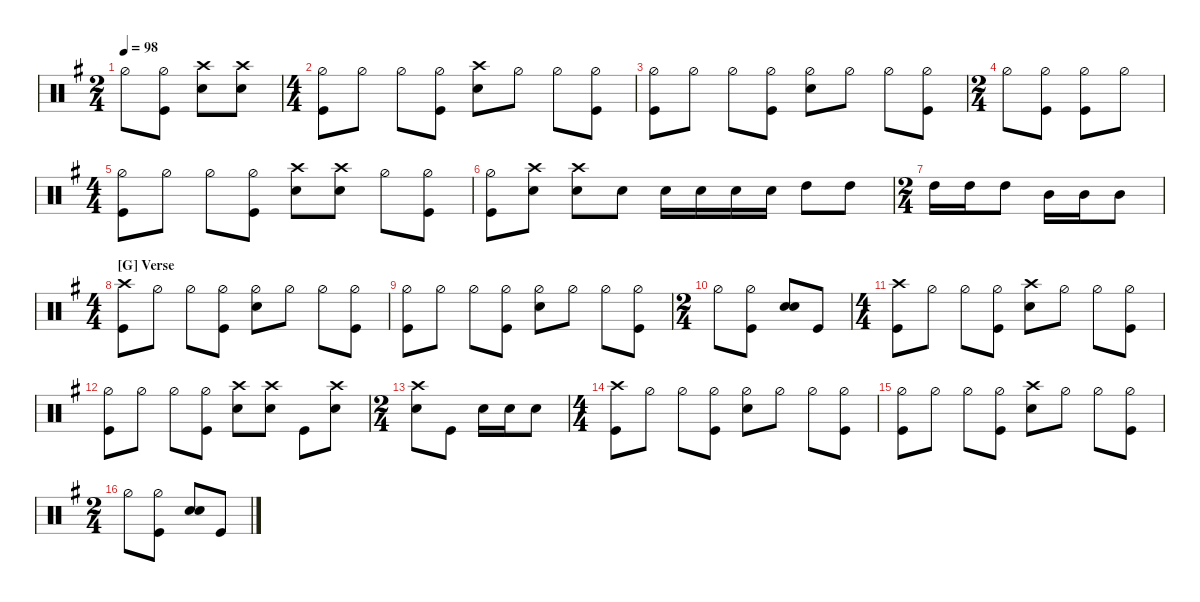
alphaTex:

\defaultSystemsLayout 4
\hideDynamics
\bracketExtendMode nobrackets
\track ("Drums" " ") {instrument percussion}
\staff
\articulation defaults
\ts (2 4)
\beaming (8 2 2)
\tempo 98
\clef neutral
\ks eminor "Hi-Hat (half)"{acc forcenatural}.8{dy f}
("Hi-Hat (half)"{acc forcenatural} "Kick (hit)"{acc forcenatural}).8 ("Snare (hit) 2"{acc forcenatural} "Crash high (hit)"{acc forcenatural}).8 ("Snare (hit) 2"{acc forcenatural} "Crash high (hit)"{acc forcenatural}).8 |
\ts (4 4)
\beaming (8 2 2 2 2)
("Kick (hit)"{acc forcenatural} "Hi-Hat (half)"{acc forcenatural}).8 "Hi-Hat (half)"{acc forcenatural}.8 "Hi-Hat (half)"{acc forcenatural}.8 ("Hi-Hat (half)"{acc forcenatural} "Kick (hit)"{acc forcenatural}).8 ("Snare (hit) 2"{acc forcenatural} "Crash high (hit)"{acc forcenatural}).8 "Hi-Hat (half)"{acc forcenatural}.8 "Hi-Hat (half)"{acc forcenatural}.8 ("Hi-Hat (half)"{acc forcenatural} "Kick (hit)"{acc forcenatural}).8 |
("Hi-Hat (half)"{acc forcenatural} "Kick (hit)"{acc forcenatural}).8 "Hi-Hat (half)"{acc forcenatural}.8 "Hi-Hat (half)"{acc forcenatural}.8 ("Hi-Hat (half)"{acc forcenatural} "Kick (hit)"{acc forcenatural}).8 ("Hi-Hat (half)"{acc forcenatural} "Snare (hit) 2"{acc forcenatural}).8 "Hi-Hat (half)"{acc forcenatural}.8 "Hi-Hat (half)"{acc forcenatural}.8 ("Hi-Hat (half)"{acc forcenatural} "Kick (hit)"{acc forcenatural}).8 |
\ts (2 4)
\beaming (8 2 2)
"Hi-Hat (half)"{acc forcenatural}.8 ("Hi-Hat (half)"{acc forcenatural} "Kick (hit)"{acc forcenatural}).8 ("Hi-Hat (half)"{acc forcenatural} "Kick (hit)"{acc forcenatural}).8 "Hi-Hat (half)"{acc forcenatural}.8 |
\ts (4 4)
\beaming (8 2 2 2 2)
("Kick (hit)"{acc forcenatural} "Hi-Hat (half)"{acc forcenatural}).8 "Hi-Hat (half)"{acc forcenatural}.8 "Hi-Hat (half)"{acc forcenatural}.8 ("Hi-Hat (half)"{acc forcenatural} "Kick (hit)"{acc forcenatural}).8 ("Snare (hit) 2"{acc forcenatural} "Crash high (hit)"{acc forcenatural}).8 ("Crash high (hit)"{acc forcenatural} "Snare (hit) 2"{acc forcenatural}).8 "Hi-Hat (half)"{acc forcenatural}.8 ("Hi-Hat (half)"{acc forcenatural} "Kick (hit)"{acc forcenatural}).8 |
("Hi-Hat (half)"{acc forcenatural} "Kick (hit)"{acc forcenatural}).8 ("Snare (hit) 2"{acc forcenatural} "Crash high (hit)"{acc forcenatural}).8 ("Snare (hit) 2"{acc forcenatural} "Crash high (hit)"{acc forcenatural}).8 "Snare (hit) 2"{acc forcenatural}.8 "Snare (hit) 2"{acc forcenatural}.16 "Snare (hit) 2"{acc forcenatural}.16 "Snare (hit) 2"{acc forcenatural}.16 "Snare (hit) 2"{acc forcenatural}.16 "High Tom (hit)"{acc forcenatural}.8{dy ff} "High Tom (hit)"{acc forcenatural}.8 |
\ts (2 4)
\beaming (8 2 2)
"High Tom (hit)"{acc forcenatural}.16 "High Tom (hit)"{acc forcenatural}.16 "High Tom (hit)"{acc forcenatural}.8 "Mid Tom (hit)"{acc forcenatural}.16 "Mid Tom (hit)"{acc forcenatural}.16 "Mid Tom (hit)"{acc forcenatural}.8 |
\ts (4 4)
\beaming (8 2 2 2 2)
\section ("G" "Verse")
("Kick (hit)"{acc forcenatural} "Crash high (hit)"{acc forcenatural}).8{dy f} "Hi-Hat (half)"{acc forcenatural}.8 "Hi-Hat (half)"{acc forcenatural}.8 ("Hi-Hat (half)"{acc forcenatural} "Kick (hit)"{acc forcenatural}).8 ("Hi-Hat (half)"{acc forcenatural} "Snare (hit) 2"{acc forcenatural}).8 "Hi-Hat (half)"{acc forcenatural}.8 "Hi-Hat (half)"{acc forcenatural}.8 ("Hi-Hat (half)"{acc forcenatural} "Kick (hit)"{acc forcenatural}).8 |
("Hi-Hat (half)"{acc forcenatural} "Kick (hit)"{acc forcenatural}).8 "Hi-Hat (half)"{acc forcenatural}.8 "Hi-Hat (half)"{acc forcenatural}.8 ("Hi-Hat (half)"{acc forcenatural} "Kick (hit)"{acc forcenatural}).8 ("Hi-Hat (half)"{acc forcenatural} "Snare (hit) 2"{acc forcenatural}).8 "Hi-Hat (half)"{acc forcenatural}.8 "Hi-Hat (half)"{acc forcenatural}.8 ("Hi-Hat (half)"{acc forcenatural} "Kick (hit)"{acc forcenatural}).8 |
\ts (2 4)
\beaming (8 2 2)
"Hi-Hat (half)"{acc forcenatural}.8 ("Hi-Hat (half)"{acc forcenatural} "Kick (hit)"{acc forcenatural}).8 ("Snare (hit) 2"{acc forcenatural} "Snare (hit) 2"{acc forcenatural}).8 "Kick (hit)"{acc forcenatural}.8 |
\ts (4 4)
\beaming (8 2 2 2 2)
("Kick (hit)"{acc forcenatural} "Crash high (hit)"{acc forcenatural}).8 "Hi-Hat (half)"{acc forcenatural}.8 "Hi-Hat (half)"{acc forcenatural}.8 ("Hi-Hat (half)"{acc forcenatural} "Kick (hit)"{acc forcenatural}).8 ("Snare (hit) 2"{acc forcenatural} "Crash high (hit)"{acc forcenatural}).8 "Hi-Hat (half)"{acc forcenatural}.8 "Hi-Hat (half)"{acc forcenatural}.8 ("Hi-Hat (half)"{acc forcenatural} "Kick (hit)"{acc forcenatural}).8 |
("Hi-Hat (half)"{acc forcenatural} "Kick (hit)"{acc forcenatural}).8 "Hi-Hat (half)"{acc forcenatural}.8 "Hi-Hat (half)"{acc forcenatural}.8 ("Hi-Hat (half)"{acc forcenatural} "Kick (hit)"{acc forcenatural}).8 ("Snare (hit) 2"{acc forcenatural} "Crash high (hit)"{acc forcenatural}).8 ("Snare (hit) 2"{acc forcenatural} "Crash high (hit)"{acc forcenatural}).8 "Kick (hit)"{acc forcenatural}.8 ("Snare (hit) 2"{acc forcenatural} "Crash high (hit)"{acc forcenatural}).8 |
\ts (2 4)
\beaming (8 2 2)
("Snare (hit) 2"{acc forcenatural} "Crash high (hit)"{acc forcenatural}).8 "Kick (hit)"{acc forcenatural}.8 "Snare (hit) 2"{acc forcenatural}.16 "Snare (hit) 2"{acc forcenatural}.16 "Snare (hit) 2"{acc forcenatural}.8 |
\ts (4 4)
\beaming (8 2 2 2 2)
("Kick (hit)"{acc forcenatural} "Crash high (hit)"{acc forcenatural}).8 "Hi-Hat (half)"{acc forcenatural}.8 "Hi-Hat (half)"{acc forcenatural}.8 ("Hi-Hat (half)"{acc forcenatural} "Kick (hit)"{acc forcenatural}).8 ("Hi-Hat (half)"{acc forcenatural} "Snare (hit) 2"{acc forcenatural}).8 "Hi-Hat (half)"{acc forcenatural}.8 "Hi-Hat (half)"{acc forcenatural}.8 ("Hi-Hat (half)"{acc forcenatural} "Kick (hit)"{acc forcenatural}).8 |
("Hi-Hat (half)"{acc forcenatural} "Kick (hit)"{acc forcenatural}).8 "Hi-Hat (half)"{acc forcenatural}.8 "Hi-Hat (half)"{acc forcenatural}.8 ("Hi-Hat (half)"{acc forcenatural} "Kick (hit)"{acc forcenatural}).8 ("Snare (hit) 2"{acc forcenatural} "Crash high (hit)"{acc forcenatural}).8 "Hi-Hat (half)"{acc forcenatural}.8 "Hi-Hat (half)"{acc forcenatural}.8 ("Hi-Hat (half)"{acc forcenatural} "Kick (hit)"{acc forcenatural}).8 |
\ts (2 4)
\beaming (8 2 2)
"Hi-Hat (half)"{acc forcenatural}.8 ("Hi-Hat (half)"{acc forcenatural} "Kick (hit)"{acc forcenatural}).8 ("Snare (hit) 2"{acc forcenatural} "Snare (hit) 2"{acc forcenatural}).8 "Kick (hit)"{acc forcenatural}.8
